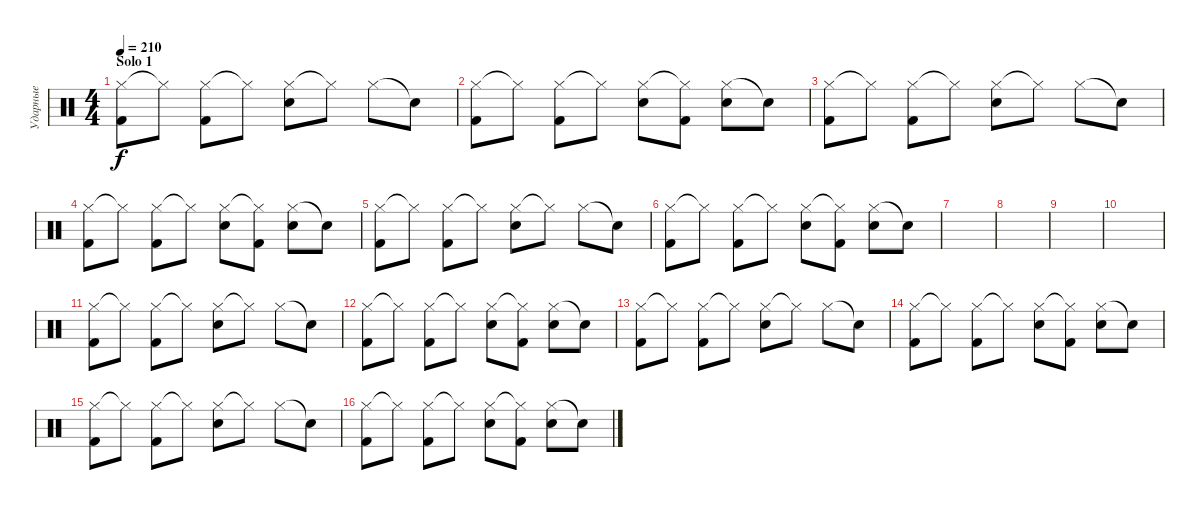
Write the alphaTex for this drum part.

\track ("Ударные" "Ударные") {instrument percussion}
\staff {score}
\articulation defaults
\ts (4 4)
\section ("" "Solo 1")
\tempo 210
\clef neutral
\ks c
("Hi-Hat (closed)" "Kick (hit) 2").8{dy f} "Hi-Hat (closed)"{t}.8 ("Hi-Hat (closed)" "Kick (hit) 2").8 "Hi-Hat (closed)"{t}.8 ("Hi-Hat (closed)" "Snare (hit) 2").8 "Hi-Hat (closed)"{t}.8 "Hi-Hat (closed)".8 "Snare (hit)"{t}.8 |
("Hi-Hat (closed)" "Kick (hit) 2").8 "Hi-Hat (closed)"{t}.8 ("Hi-Hat (closed)" "Kick (hit) 2").8 "Hi-Hat (closed)"{t}.8 ("Hi-Hat (closed)" "Snare (hit) 2").8 ("Hi-Hat (closed)"{t} "Kick (hit) 2").8 ("Hi-Hat (closed)" "Snare (hit) 2").8 "Snare (hit)"{t}.8 |
("Hi-Hat (closed)" "Kick (hit) 2").8 "Hi-Hat (closed)"{t}.8 ("Hi-Hat (closed)" "Kick (hit) 2").8 "Hi-Hat (closed)"{t}.8 ("Hi-Hat (closed)" "Snare (hit) 2").8 "Hi-Hat (closed)"{t}.8 "Hi-Hat (closed)".8 "Snare (hit)"{t}.8 |
("Hi-Hat (closed)" "Kick (hit) 2").8 "Hi-Hat (closed)"{t}.8 ("Hi-Hat (closed)" "Kick (hit) 2").8 "Hi-Hat (closed)"{t}.8 ("Hi-Hat (closed)" "Snare (hit) 2").8 ("Hi-Hat (closed)"{t} "Kick (hit) 2").8 ("Hi-Hat (closed)" "Snare (hit) 2").8 "Snare (hit)"{t}.8 |
("Hi-Hat (closed)" "Kick (hit) 2").8 "Hi-Hat (closed)"{t}.8 ("Hi-Hat (closed)" "Kick (hit) 2").8 "Hi-Hat (closed)"{t}.8 ("Hi-Hat (closed)" "Snare (hit) 2").8 "Hi-Hat (closed)"{t}.8 "Hi-Hat (closed)".8 "Snare (hit)"{t}.8 |
("Hi-Hat (closed)" "Kick (hit) 2").8 "Hi-Hat (closed)"{t}.8 ("Hi-Hat (closed)" "Kick (hit) 2").8 "Hi-Hat (closed)"{t}.8 ("Hi-Hat (closed)" "Snare (hit) 2").8 ("Hi-Hat (closed)"{t} "Kick (hit) 2").8 ("Hi-Hat (closed)" "Snare (hit) 2").8 "Snare (hit)"{t}.8 |
|
|
|
|
("Hi-Hat (closed)" "Kick (hit) 2").8 "Hi-Hat (closed)"{t}.8 ("Hi-Hat (closed)" "Kick (hit) 2").8 "Hi-Hat (closed)"{t}.8 ("Hi-Hat (closed)" "Snare (hit) 2").8 "Hi-Hat (closed)"{t}.8 "Hi-Hat (closed)".8 "Snare (hit)"{t}.8 |
("Hi-Hat (closed)" "Kick (hit) 2").8 "Hi-Hat (closed)"{t}.8 ("Hi-Hat (closed)" "Kick (hit) 2").8 "Hi-Hat (closed)"{t}.8 ("Hi-Hat (closed)" "Snare (hit) 2").8 ("Hi-Hat (closed)"{t} "Kick (hit) 2").8 ("Hi-Hat (closed)" "Snare (hit) 2").8 "Snare (hit)"{t}.8 |
("Hi-Hat (closed)" "Kick (hit) 2").8 "Hi-Hat (closed)"{t}.8 ("Hi-Hat (closed)" "Kick (hit) 2").8 "Hi-Hat (closed)"{t}.8 ("Hi-Hat (closed)" "Snare (hit) 2").8 "Hi-Hat (closed)"{t}.8 "Hi-Hat (closed)".8 "Snare (hit)"{t}.8 |
("Hi-Hat (closed)" "Kick (hit) 2").8 "Hi-Hat (closed)"{t}.8 ("Hi-Hat (closed)" "Kick (hit) 2").8 "Hi-Hat (closed)"{t}.8 ("Hi-Hat (closed)" "Snare (hit) 2").8 ("Hi-Hat (closed)"{t} "Kick (hit) 2").8 ("Hi-Hat (closed)" "Snare (hit) 2").8 "Snare (hit)"{t}.8 |
("Hi-Hat (closed)" "Kick (hit) 2").8 "Hi-Hat (closed)"{t}.8 ("Hi-Hat (closed)" "Kick (hit) 2").8 "Hi-Hat (closed)"{t}.8 ("Hi-Hat (closed)" "Snare (hit) 2").8 "Hi-Hat (closed)"{t}.8 "Hi-Hat (closed)".8 "Snare (hit)"{t}.8 |
("Hi-Hat (closed)" "Kick (hit) 2").8 "Hi-Hat (closed)"{t}.8 ("Hi-Hat (closed)" "Kick (hit) 2").8 "Hi-Hat (closed)"{t}.8 ("Hi-Hat (closed)" "Snare (hit) 2").8 ("Hi-Hat (closed)"{t} "Kick (hit) 2").8 ("Hi-Hat (closed)" "Snare (hit) 2").8 "Snare (hit)"{t}.8
